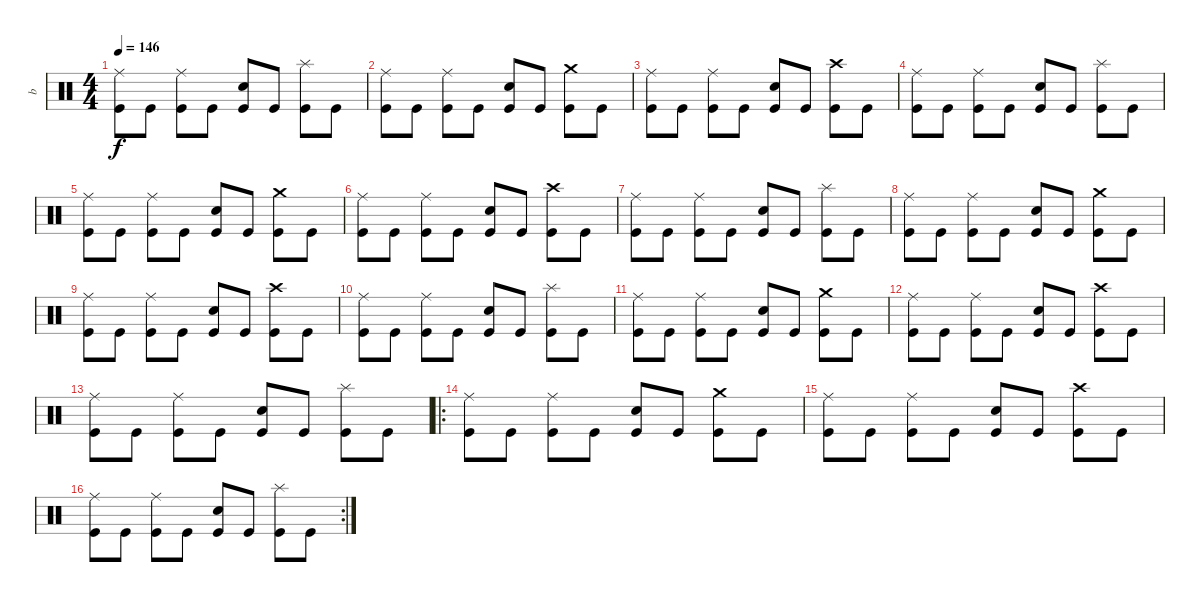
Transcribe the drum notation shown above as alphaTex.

\track ("b" "b") {instrument percussion}
\staff {score}
\articulation defaults
\ts (4 4)
\tempo 146
\clef neutral
\ks c
("Ride (middle)" "Kick (hit)").8{dy f} "Kick (hit)".8 ("Ride (middle)" "Kick (hit)").8 "Kick (hit)".8 ("Electric Snare (hit)" "Kick (hit)").8 "Kick (hit)".8 ("Splash (hit)" "Kick (hit)").8 "Kick (hit)".8 |
("Ride (middle)" "Kick (hit)").8 "Kick (hit)".8 ("Ride (middle)" "Kick (hit)").8 "Kick (hit)".8 ("Electric Snare (hit)" "Kick (hit)").8 "Kick (hit)".8 ("Crash medium (hit)" "Kick (hit)").8 "Kick (hit)".8 |
("Ride (middle)" "Kick (hit)").8 "Kick (hit)".8 ("Ride (middle)" "Kick (hit)").8 "Kick (hit)".8 ("Electric Snare (hit)" "Kick (hit)").8 "Kick (hit)".8 ("Crash high (hit)" "Kick (hit)").8 "Kick (hit)".8 |
("Ride (middle)" "Kick (hit)").8 "Kick (hit)".8 ("Ride (middle)" "Kick (hit)").8 "Kick (hit)".8 ("Electric Snare (hit)" "Kick (hit)").8 "Kick (hit)".8 ("Splash (hit)" "Kick (hit)").8 "Kick (hit)".8 |
("Ride (middle)" "Kick (hit)").8 "Kick (hit)".8 ("Ride (middle)" "Kick (hit)").8 "Kick (hit)".8 ("Electric Snare (hit)" "Kick (hit)").8 "Kick (hit)".8 ("Crash medium (hit)" "Kick (hit)").8 "Kick (hit)".8 |
("Ride (middle)" "Kick (hit)").8 "Kick (hit)".8 ("Ride (middle)" "Kick (hit)").8 "Kick (hit)".8 ("Electric Snare (hit)" "Kick (hit)").8 "Kick (hit)".8 ("Crash high (hit)" "Kick (hit)").8 "Kick (hit)".8 |
("Ride (middle)" "Kick (hit)").8 "Kick (hit)".8 ("Ride (middle)" "Kick (hit)").8 "Kick (hit)".8 ("Electric Snare (hit)" "Kick (hit)").8 "Kick (hit)".8 ("Splash (hit)" "Kick (hit)").8 "Kick (hit)".8 |
("Ride (middle)" "Kick (hit)").8 "Kick (hit)".8 ("Ride (middle)" "Kick (hit)").8 "Kick (hit)".8 ("Electric Snare (hit)" "Kick (hit)").8 "Kick (hit)".8 ("Crash medium (hit)" "Kick (hit)").8 "Kick (hit)".8 |
("Ride (middle)" "Kick (hit)").8 "Kick (hit)".8 ("Ride (middle)" "Kick (hit)").8 "Kick (hit)".8 ("Electric Snare (hit)" "Kick (hit)").8 "Kick (hit)".8 ("Crash high (hit)" "Kick (hit)").8 "Kick (hit)".8 |
("Ride (middle)" "Kick (hit)").8 "Kick (hit)".8 ("Ride (middle)" "Kick (hit)").8 "Kick (hit)".8 ("Electric Snare (hit)" "Kick (hit)").8 "Kick (hit)".8 ("Splash (hit)" "Kick (hit)").8 "Kick (hit)".8 |
("Ride (middle)" "Kick (hit)").8 "Kick (hit)".8 ("Ride (middle)" "Kick (hit)").8 "Kick (hit)".8 ("Electric Snare (hit)" "Kick (hit)").8 "Kick (hit)".8 ("Crash medium (hit)" "Kick (hit)").8 "Kick (hit)".8 |
("Ride (middle)" "Kick (hit)").8 "Kick (hit)".8 ("Ride (middle)" "Kick (hit)").8 "Kick (hit)".8 ("Electric Snare (hit)" "Kick (hit)").8 "Kick (hit)".8 ("Crash high (hit)" "Kick (hit)").8 "Kick (hit)".8 |
("Ride (middle)" "Kick (hit)").8 "Kick (hit)".8 ("Ride (middle)" "Kick (hit)").8 "Kick (hit)".8 ("Electric Snare (hit)" "Kick (hit)").8 "Kick (hit)".8 ("Splash (hit)" "Kick (hit)").8 "Kick (hit)".8 |
\ro
("Ride (middle)" "Kick (hit)").8 "Kick (hit)".8 ("Ride (middle)" "Kick (hit)").8 "Kick (hit)".8 ("Electric Snare (hit)" "Kick (hit)").8 "Kick (hit)".8 ("Crash medium (hit)" "Kick (hit)").8 "Kick (hit)".8 |
("Ride (middle)" "Kick (hit)").8 "Kick (hit)".8 ("Ride (middle)" "Kick (hit)").8 "Kick (hit)".8 ("Electric Snare (hit)" "Kick (hit)").8 "Kick (hit)".8 ("Crash high (hit)" "Kick (hit)").8 "Kick (hit)".8 |
\rc 2
("Ride (middle)" "Kick (hit)").8 "Kick (hit)".8 ("Ride (middle)" "Kick (hit)").8 "Kick (hit)".8 ("Electric Snare (hit)" "Kick (hit)").8 "Kick (hit)".8 ("Splash (hit)" "Kick (hit)").8 "Kick (hit)".8
